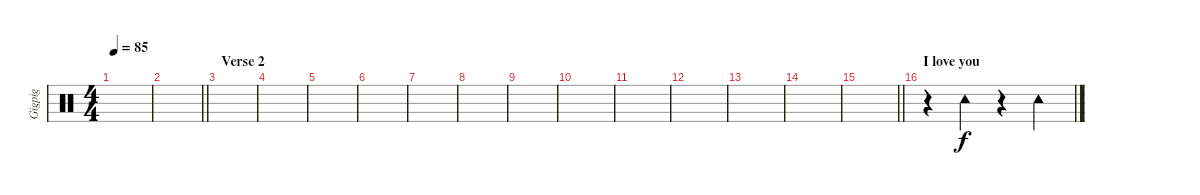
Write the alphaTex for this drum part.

\track ("Gigpig" "Gigpig") {instrument percussion}
\staff {score}
\articulation defaults
\ts (4 4)
\tempo 85
\clef neutral
\ks c
|
\barLineRight lightlight
|
\section ("" "Verse 2")
|
|
|
|
|
|
|
|
|
|
|
|
\barLineRight lightlight
|
\section ("" "I love you")
r.4 "Tambourine (hit)".4 r.4 "Tambourine (hit)".4
